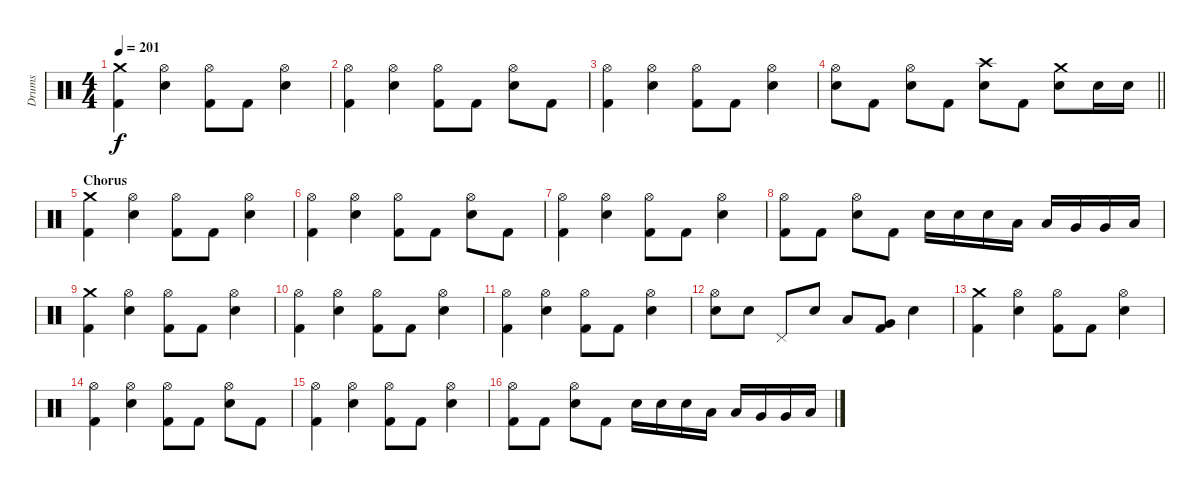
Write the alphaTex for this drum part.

\track ("Drums" "Drums") {instrument percussion}
\staff {score}
\articulation defaults
\ts (4 4)
\tempo 201
\clef neutral
\ks c
("Crash medium (hit)" "Kick (hit) 2").4{dy f} ("Hi-Hat (open)" "Electric Snare (hit)").4 ("Hi-Hat (open)" "Kick (hit) 2").8 "Kick (hit) 2".8 ("Hi-Hat (open)" "Electric Snare (hit)").4 |
("Hi-Hat (open)" "Kick (hit) 2").4 ("Hi-Hat (open)" "Electric Snare (hit)").4 ("Hi-Hat (open)" "Kick (hit) 2").8 "Kick (hit) 2".8 ("Hi-Hat (open)" "Electric Snare (hit)").8 "Kick (hit) 2".8 |
("Hi-Hat (open)" "Kick (hit) 2").4 ("Hi-Hat (open)" "Electric Snare (hit)").4 ("Hi-Hat (open)" "Kick (hit) 2").8 "Kick (hit) 2".8 ("Hi-Hat (open)" "Electric Snare (hit)").4 |
\barLineRight lightlight
("Hi-Hat (open)" "Electric Snare (hit)").8 "Kick (hit) 2".8 ("Hi-Hat (open)" "Electric Snare (hit)").8 "Kick (hit) 2".8 ("Crash high (hit)" "Electric Snare (hit)").8 "Kick (hit) 2".8 ("Crash medium (hit)" "Electric Snare (hit)").8 "Electric Snare (hit)".16 "Electric Snare (hit)".16 |
\section ("" "Chorus")
("Crash medium (hit)" "Kick (hit) 2").4 ("Hi-Hat (open)" "Electric Snare (hit)").4 ("Hi-Hat (open)" "Kick (hit) 2").8 "Kick (hit) 2".8 ("Hi-Hat (open)" "Electric Snare (hit)").4 |
("Hi-Hat (open)" "Kick (hit) 2").4 ("Hi-Hat (open)" "Electric Snare (hit)").4 ("Hi-Hat (open)" "Kick (hit) 2").8 "Kick (hit) 2".8 ("Hi-Hat (open)" "Electric Snare (hit)").8 "Kick (hit) 2".8 |
("Hi-Hat (open)" "Kick (hit) 2").4 ("Hi-Hat (open)" "Electric Snare (hit)").4 ("Hi-Hat (open)" "Kick (hit) 2").8 "Kick (hit) 2".8 ("Hi-Hat (open)" "Electric Snare (hit)").4 |
("Hi-Hat (open)" "Kick (hit) 2").8 "Kick (hit) 2".8 ("Hi-Hat (open)" "Electric Snare (hit)").8 "Kick (hit) 2".8 "Electric Snare (hit)".16 "Electric Snare (hit)".16 "Electric Snare (hit)".16 "Low Tom (hit)".16 "Low Tom (hit)".16 "Very Low Tom (hit)".16 "Very Low Tom (hit)".16 "Low Floor Tom (hit)".16 |
("Crash medium (hit)" "Kick (hit) 2").4 ("Hi-Hat (open)" "Electric Snare (hit)").4 ("Hi-Hat (open)" "Kick (hit) 2").8 "Kick (hit) 2".8 ("Hi-Hat (open)" "Electric Snare (hit)").4 |
("Hi-Hat (open)" "Kick (hit) 2").4 ("Hi-Hat (open)" "Electric Snare (hit)").4 ("Hi-Hat (open)" "Kick (hit) 2").8 "Kick (hit) 2".8 ("Hi-Hat (open)" "Electric Snare (hit)").4 |
("Hi-Hat (open)" "Kick (hit) 2").4 ("Hi-Hat (open)" "Electric Snare (hit)").4 ("Hi-Hat (open)" "Kick (hit) 2").8 "Kick (hit) 2".8 ("Hi-Hat (open)" "Electric Snare (hit)").4 |
("Hi-Hat (open)" "Electric Snare (hit)").8 "Electric Snare (hit)".8 "Pedal Hi-Hat (hit)".8 "Electric Snare (hit)".8 "Low Tom (hit)".8 ("Very Low Tom (hit)" "Kick (hit) 2").8 "Electric Snare (hit)".4 |
("Crash medium (hit)" "Kick (hit) 2").4 ("Hi-Hat (open)" "Electric Snare (hit)").4 ("Hi-Hat (open)" "Kick (hit) 2").8 "Kick (hit) 2".8 ("Hi-Hat (open)" "Electric Snare (hit)").4 |
("Hi-Hat (open)" "Kick (hit) 2").4 ("Hi-Hat (open)" "Electric Snare (hit)").4 ("Hi-Hat (open)" "Kick (hit) 2").8 "Kick (hit) 2".8 ("Hi-Hat (open)" "Electric Snare (hit)").8 "Kick (hit) 2".8 |
("Hi-Hat (open)" "Kick (hit) 2").4 ("Hi-Hat (open)" "Electric Snare (hit)").4 ("Hi-Hat (open)" "Kick (hit) 2").8 "Kick (hit) 2".8 ("Hi-Hat (open)" "Electric Snare (hit)").4 |
("Hi-Hat (open)" "Kick (hit) 2").8 "Kick (hit) 2".8 ("Hi-Hat (open)" "Electric Snare (hit)").8 "Kick (hit) 2".8 "Electric Snare (hit)".16 "Electric Snare (hit)".16 "Electric Snare (hit)".16 "Low Tom (hit)".16 "Low Tom (hit)".16 "Very Low Tom (hit)".16 "Very Low Tom (hit)".16 "Low Floor Tom (hit)".16
